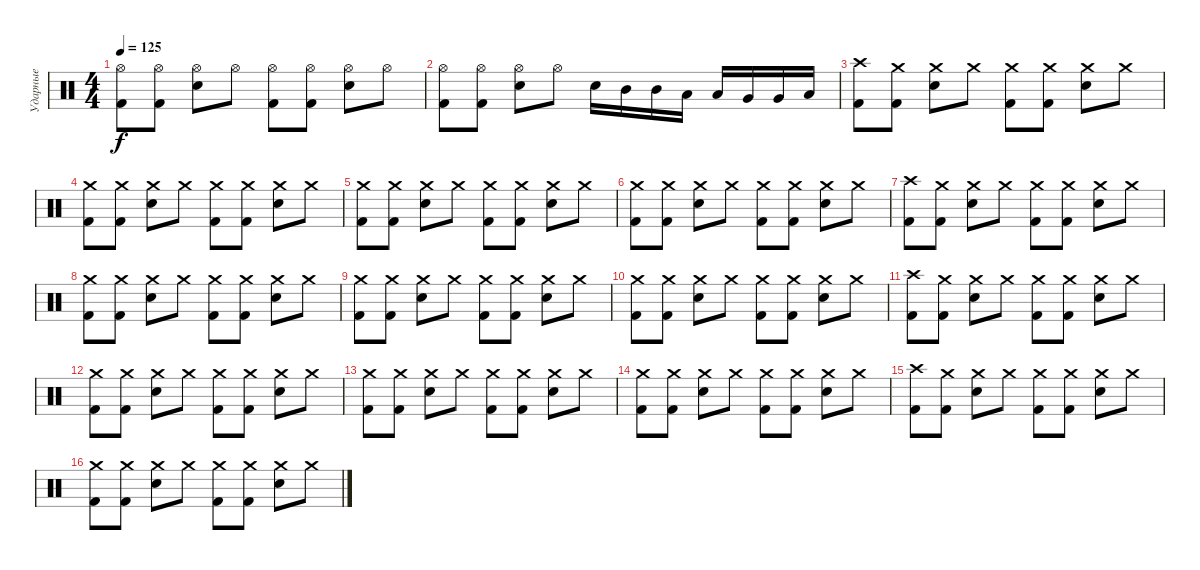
\track ("Ударные" "Ударные") {instrument percussion}
\staff {score}
\articulation defaults
\ts (4 4)
\tempo 125
\clef neutral
\ks c
("Hi-Hat (open)" "Kick (hit) 2").8{dy f} ("Hi-Hat (open)" "Kick (hit) 2").8 ("Hi-Hat (open)" "Snare (hit) 2").8 "Hi-Hat (open)".8 ("Hi-Hat (open)" "Kick (hit) 2").8 ("Hi-Hat (open)" "Kick (hit) 2").8 ("Hi-Hat (open)" "Snare (hit) 2").8 "Hi-Hat (open)".8 |
("Hi-Hat (open)" "Kick (hit) 2").8 ("Hi-Hat (open)" "Kick (hit) 2").8 ("Hi-Hat (open)" "Snare (hit) 2").8 "Hi-Hat (open)".8 "Snare (hit) 2".16 "Mid Tom (hit)".16 "Mid Tom (hit)".16 "Low Tom (hit)".16 "Low Tom (hit)".16 "Very Low Tom (hit)".16 "Very Low Tom (hit)".16 "Low Floor Tom (hit)".16 |
("Crash high (hit)" "Kick (hit) 2").8 ("Crash medium (hit)" "Kick (hit) 2").8 ("Crash medium (hit)" "Snare (hit) 2").8 "Crash medium (hit)".8 ("Crash medium (hit)" "Kick (hit) 2").8 ("Crash medium (hit)" "Kick (hit) 2").8 ("Crash medium (hit)" "Snare (hit) 2").8 "Crash medium (hit)".8 |
("Crash medium (hit)" "Kick (hit) 2").8 ("Crash medium (hit)" "Kick (hit) 2").8 ("Crash medium (hit)" "Snare (hit) 2").8 "Crash medium (hit)".8 ("Crash medium (hit)" "Kick (hit) 2").8 ("Crash medium (hit)" "Kick (hit) 2").8 ("Crash medium (hit)" "Snare (hit) 2").8 "Crash medium (hit)".8 |
("Crash medium (hit)" "Kick (hit) 2").8 ("Crash medium (hit)" "Kick (hit) 2").8 ("Crash medium (hit)" "Snare (hit) 2").8 "Crash medium (hit)".8 ("Crash medium (hit)" "Kick (hit) 2").8 ("Crash medium (hit)" "Kick (hit) 2").8 ("Crash medium (hit)" "Snare (hit) 2").8 "Crash medium (hit)".8 |
("Crash medium (hit)" "Kick (hit) 2").8 ("Crash medium (hit)" "Kick (hit) 2").8 ("Crash medium (hit)" "Snare (hit) 2").8 "Crash medium (hit)".8 ("Crash medium (hit)" "Kick (hit) 2").8 ("Crash medium (hit)" "Kick (hit) 2").8 ("Crash medium (hit)" "Snare (hit) 2").8 "Crash medium (hit)".8 |
("Crash high (hit)" "Kick (hit) 2").8 ("Crash medium (hit)" "Kick (hit) 2").8 ("Crash medium (hit)" "Snare (hit) 2").8 "Crash medium (hit)".8 ("Crash medium (hit)" "Kick (hit) 2").8 ("Crash medium (hit)" "Kick (hit) 2").8 ("Crash medium (hit)" "Snare (hit) 2").8 "Crash medium (hit)".8 |
("Crash medium (hit)" "Kick (hit) 2").8 ("Crash medium (hit)" "Kick (hit) 2").8 ("Crash medium (hit)" "Snare (hit) 2").8 "Crash medium (hit)".8 ("Crash medium (hit)" "Kick (hit) 2").8 ("Crash medium (hit)" "Kick (hit) 2").8 ("Crash medium (hit)" "Snare (hit) 2").8 "Crash medium (hit)".8 |
("Crash medium (hit)" "Kick (hit) 2").8 ("Crash medium (hit)" "Kick (hit) 2").8 ("Crash medium (hit)" "Snare (hit) 2").8 "Crash medium (hit)".8 ("Crash medium (hit)" "Kick (hit) 2").8 ("Crash medium (hit)" "Kick (hit) 2").8 ("Crash medium (hit)" "Snare (hit) 2").8 "Crash medium (hit)".8 |
("Crash medium (hit)" "Kick (hit) 2").8 ("Crash medium (hit)" "Kick (hit) 2").8 ("Crash medium (hit)" "Snare (hit) 2").8 "Crash medium (hit)".8 ("Crash medium (hit)" "Kick (hit) 2").8 ("Crash medium (hit)" "Kick (hit) 2").8 ("Crash medium (hit)" "Snare (hit) 2").8 "Crash medium (hit)".8 |
("Crash high (hit)" "Kick (hit) 2").8 ("Crash medium (hit)" "Kick (hit) 2").8 ("Crash medium (hit)" "Snare (hit) 2").8 "Crash medium (hit)".8 ("Crash medium (hit)" "Kick (hit) 2").8 ("Crash medium (hit)" "Kick (hit) 2").8 ("Crash medium (hit)" "Snare (hit) 2").8 "Crash medium (hit)".8 |
("Crash medium (hit)" "Kick (hit) 2").8 ("Crash medium (hit)" "Kick (hit) 2").8 ("Crash medium (hit)" "Snare (hit) 2").8 "Crash medium (hit)".8 ("Crash medium (hit)" "Kick (hit) 2").8 ("Crash medium (hit)" "Kick (hit) 2").8 ("Crash medium (hit)" "Snare (hit) 2").8 "Crash medium (hit)".8 |
("Crash medium (hit)" "Kick (hit) 2").8 ("Crash medium (hit)" "Kick (hit) 2").8 ("Crash medium (hit)" "Snare (hit) 2").8 "Crash medium (hit)".8 ("Crash medium (hit)" "Kick (hit) 2").8 ("Crash medium (hit)" "Kick (hit) 2").8 ("Crash medium (hit)" "Snare (hit) 2").8 "Crash medium (hit)".8 |
("Crash medium (hit)" "Kick (hit) 2").8 ("Crash medium (hit)" "Kick (hit) 2").8 ("Crash medium (hit)" "Snare (hit) 2").8 "Crash medium (hit)".8 ("Crash medium (hit)" "Kick (hit) 2").8 ("Crash medium (hit)" "Kick (hit) 2").8 ("Crash medium (hit)" "Snare (hit) 2").8 "Crash medium (hit)".8 |
("Crash high (hit)" "Kick (hit) 2").8 ("Crash medium (hit)" "Kick (hit) 2").8 ("Crash medium (hit)" "Snare (hit) 2").8 "Crash medium (hit)".8 ("Crash medium (hit)" "Kick (hit) 2").8 ("Crash medium (hit)" "Kick (hit) 2").8 ("Crash medium (hit)" "Snare (hit) 2").8 "Crash medium (hit)".8 |
("Crash medium (hit)" "Kick (hit) 2").8 ("Crash medium (hit)" "Kick (hit) 2").8 ("Crash medium (hit)" "Snare (hit) 2").8 "Crash medium (hit)".8 ("Crash medium (hit)" "Kick (hit) 2").8 ("Crash medium (hit)" "Kick (hit) 2").8 ("Crash medium (hit)" "Snare (hit) 2").8 "Crash medium (hit)".8
